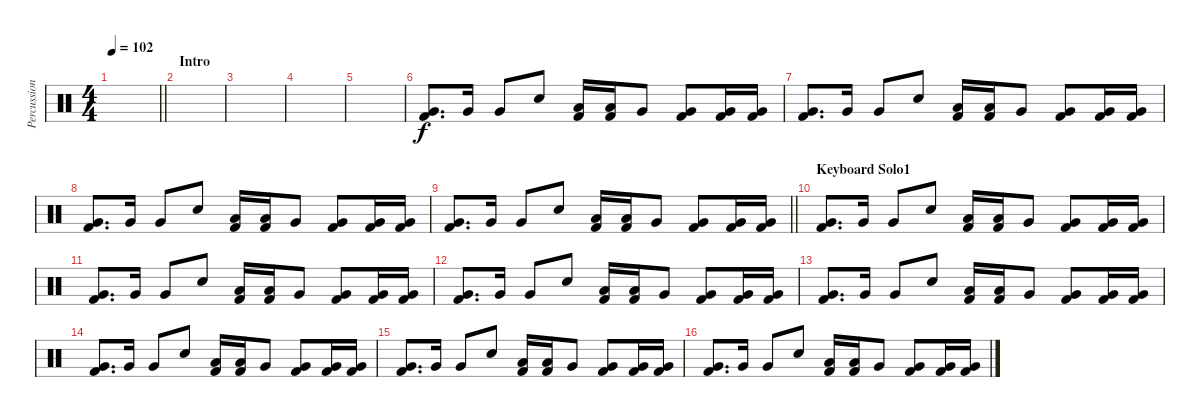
\track ("Percussion" "Percussion") {instrument percussion}
\staff {score}
\articulation defaults
\ts (4 4)
\tempo 102
\clef neutral
\barLineRight lightlight
\ks c
|
\section ("" "Intro")
|
|
|
|
("Very Low Tom (hit)" "Kick (hit) 2").8{d} "Very Low Tom (hit)".16 "Very Low Tom (hit)".8 "Snare (hit) 2".8 ("Low Tom (hit)" "Kick (hit) 2").16 ("Low Tom (hit)" "Kick (hit) 2").16 "Very Low Tom (hit)".8 ("Very Low Tom (hit)" "Kick (hit) 2").8 ("Very Low Tom (hit)" "Kick (hit) 2").16 ("Very Low Tom (hit)" "Kick (hit) 2").16 |
("Very Low Tom (hit)" "Kick (hit) 2").8{d} "Very Low Tom (hit)".16 "Very Low Tom (hit)".8 "Snare (hit) 2".8 ("Low Tom (hit)" "Kick (hit) 2").16 ("Low Tom (hit)" "Kick (hit) 2").16 "Very Low Tom (hit)".8 ("Very Low Tom (hit)" "Kick (hit) 2").8 ("Very Low Tom (hit)" "Kick (hit) 2").16 ("Very Low Tom (hit)" "Kick (hit) 2").16 |
("Very Low Tom (hit)" "Kick (hit) 2").8{d} "Very Low Tom (hit)".16 "Very Low Tom (hit)".8 "Snare (hit) 2".8 ("Low Tom (hit)" "Kick (hit) 2").16 ("Low Tom (hit)" "Kick (hit) 2").16 "Very Low Tom (hit)".8 ("Very Low Tom (hit)" "Kick (hit) 2").8 ("Very Low Tom (hit)" "Kick (hit) 2").16 ("Very Low Tom (hit)" "Kick (hit) 2").16 |
\barLineRight lightlight
("Very Low Tom (hit)" "Kick (hit) 2").8{d} "Very Low Tom (hit)".16 "Very Low Tom (hit)".8 "Snare (hit) 2".8 ("Low Tom (hit)" "Kick (hit) 2").16 ("Low Tom (hit)" "Kick (hit) 2").16 "Very Low Tom (hit)".8 ("Very Low Tom (hit)" "Kick (hit) 2").8 ("Very Low Tom (hit)" "Kick (hit) 2").16 ("Very Low Tom (hit)" "Kick (hit) 2").16 |
\section ("" "Keyboard Solo1")
("Very Low Tom (hit)" "Kick (hit) 2").8{d} "Very Low Tom (hit)".16 "Very Low Tom (hit)".8 "Snare (hit) 2".8 ("Low Tom (hit)" "Kick (hit) 2").16 ("Low Tom (hit)" "Kick (hit) 2").16 "Very Low Tom (hit)".8 ("Very Low Tom (hit)" "Kick (hit) 2").8 ("Very Low Tom (hit)" "Kick (hit) 2").16 ("Very Low Tom (hit)" "Kick (hit) 2").16 |
("Very Low Tom (hit)" "Kick (hit) 2").8{d} "Very Low Tom (hit)".16 "Very Low Tom (hit)".8 "Snare (hit) 2".8 ("Low Tom (hit)" "Kick (hit) 2").16 ("Low Tom (hit)" "Kick (hit) 2").16 "Very Low Tom (hit)".8 ("Very Low Tom (hit)" "Kick (hit) 2").8 ("Very Low Tom (hit)" "Kick (hit) 2").16 ("Very Low Tom (hit)" "Kick (hit) 2").16 |
("Very Low Tom (hit)" "Kick (hit) 2").8{d} "Very Low Tom (hit)".16 "Very Low Tom (hit)".8 "Snare (hit) 2".8 ("Low Tom (hit)" "Kick (hit) 2").16 ("Low Tom (hit)" "Kick (hit) 2").16 "Very Low Tom (hit)".8 ("Very Low Tom (hit)" "Kick (hit) 2").8 ("Very Low Tom (hit)" "Kick (hit) 2").16 ("Very Low Tom (hit)" "Kick (hit) 2").16 |
("Very Low Tom (hit)" "Kick (hit) 2").8{d} "Very Low Tom (hit)".16 "Very Low Tom (hit)".8 "Snare (hit) 2".8 ("Low Tom (hit)" "Kick (hit) 2").16 ("Low Tom (hit)" "Kick (hit) 2").16 "Very Low Tom (hit)".8 ("Very Low Tom (hit)" "Kick (hit) 2").8 ("Very Low Tom (hit)" "Kick (hit) 2").16 ("Very Low Tom (hit)" "Kick (hit) 2").16 |
("Very Low Tom (hit)" "Kick (hit) 2").8{d} "Very Low Tom (hit)".16 "Very Low Tom (hit)".8 "Snare (hit) 2".8 ("Low Tom (hit)" "Kick (hit) 2").16 ("Low Tom (hit)" "Kick (hit) 2").16 "Very Low Tom (hit)".8 ("Very Low Tom (hit)" "Kick (hit) 2").8 ("Very Low Tom (hit)" "Kick (hit) 2").16 ("Very Low Tom (hit)" "Kick (hit) 2").16 |
("Very Low Tom (hit)" "Kick (hit) 2").8{d} "Very Low Tom (hit)".16 "Very Low Tom (hit)".8 "Snare (hit) 2".8 ("Low Tom (hit)" "Kick (hit) 2").16 ("Low Tom (hit)" "Kick (hit) 2").16 "Very Low Tom (hit)".8 ("Very Low Tom (hit)" "Kick (hit) 2").8 ("Very Low Tom (hit)" "Kick (hit) 2").16 ("Very Low Tom (hit)" "Kick (hit) 2").16 |
("Very Low Tom (hit)" "Kick (hit) 2").8{d} "Very Low Tom (hit)".16 "Very Low Tom (hit)".8 "Snare (hit) 2".8 ("Low Tom (hit)" "Kick (hit) 2").16 ("Low Tom (hit)" "Kick (hit) 2").16 "Very Low Tom (hit)".8 ("Very Low Tom (hit)" "Kick (hit) 2").8 ("Very Low Tom (hit)" "Kick (hit) 2").16 ("Very Low Tom (hit)" "Kick (hit) 2").16
